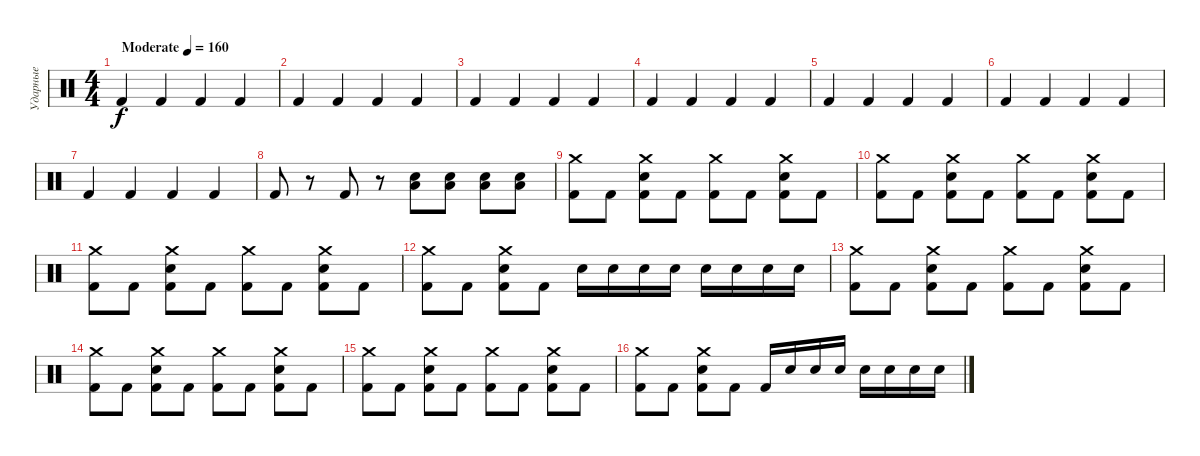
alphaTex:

\track ("Ударные" "Ударные") {instrument percussion}
\staff {score}
\articulation defaults
\ts (4 4)
\tempo (160 "Moderate")
\clef neutral
\ks c "Kick (hit) 2".4{dy f} "Kick (hit) 2".4 "Kick (hit) 2".4 "Kick (hit) 2".4
|
"Kick (hit) 2".4 "Kick (hit) 2".4 "Kick (hit) 2".4 "Kick (hit) 2".4 |
"Kick (hit) 2".4 "Kick (hit) 2".4 "Kick (hit) 2".4 "Kick (hit) 2".4 |
"Kick (hit) 2".4 "Kick (hit) 2".4 "Kick (hit) 2".4 "Kick (hit) 2".4 |
"Kick (hit) 2".4 "Kick (hit) 2".4 "Kick (hit) 2".4 "Kick (hit) 2".4 |
"Kick (hit) 2".4 "Kick (hit) 2".4 "Kick (hit) 2".4 "Kick (hit) 2".4 |
"Kick (hit) 2".4 "Kick (hit) 2".4 "Kick (hit) 2".4 "Kick (hit) 2".4 |
"Kick (hit) 2".8 r.8 "Kick (hit) 2".8 r.8 ("Electric Snare (hit)" "Low Floor Tom (hit)").8 ("Electric Snare (hit)" "Low Floor Tom (hit)").8 ("Electric Snare (hit)" "Low Floor Tom (hit)").8 ("Electric Snare (hit)" "Low Floor Tom (hit)").8 |
("Crash medium (hit)" "Kick (hit) 2").8 "Kick (hit) 2".8 ("Crash medium (hit)" "Electric Snare (hit)" "Kick (hit) 2").8 "Kick (hit) 2".8 ("Crash medium (hit)" "Kick (hit) 2").8 "Kick (hit) 2".8 ("Crash medium (hit)" "Electric Snare (hit)" "Kick (hit) 2").8 "Kick (hit) 2".8 |
("Crash medium (hit)" "Kick (hit) 2").8 "Kick (hit) 2".8 ("Crash medium (hit)" "Electric Snare (hit)" "Kick (hit) 2").8 "Kick (hit) 2".8 ("Crash medium (hit)" "Kick (hit) 2").8 "Kick (hit) 2".8 ("Crash medium (hit)" "Electric Snare (hit)" "Kick (hit) 2").8 "Kick (hit) 2".8 |
("Crash medium (hit)" "Kick (hit) 2").8 "Kick (hit) 2".8 ("Crash medium (hit)" "Electric Snare (hit)" "Kick (hit) 2").8 "Kick (hit) 2".8 ("Crash medium (hit)" "Kick (hit) 2").8 "Kick (hit) 2".8 ("Crash medium (hit)" "Electric Snare (hit)" "Kick (hit) 2").8 "Kick (hit) 2".8 |
("Crash medium (hit)" "Kick (hit) 2").8 "Kick (hit) 2".8 ("Crash medium (hit)" "Electric Snare (hit)" "Kick (hit) 2").8 "Kick (hit) 2".8 "Electric Snare (hit)".16 "Electric Snare (hit)".16 "Electric Snare (hit)".16 "Electric Snare (hit)".16 "Electric Snare (hit)".16 "Electric Snare (hit)".16 "Electric Snare (hit)".16 "Electric Snare (hit)".16 |
("Crash medium (hit)" "Kick (hit) 2").8 "Kick (hit) 2".8 ("Crash medium (hit)" "Electric Snare (hit)" "Kick (hit) 2").8 "Kick (hit) 2".8 ("Crash medium (hit)" "Kick (hit) 2").8 "Kick (hit) 2".8 ("Crash medium (hit)" "Electric Snare (hit)" "Kick (hit) 2").8 "Kick (hit) 2".8 |
("Crash medium (hit)" "Kick (hit) 2").8 "Kick (hit) 2".8 ("Crash medium (hit)" "Electric Snare (hit)" "Kick (hit) 2").8 "Kick (hit) 2".8 ("Crash medium (hit)" "Kick (hit) 2").8 "Kick (hit) 2".8 ("Crash medium (hit)" "Electric Snare (hit)" "Kick (hit) 2").8 "Kick (hit) 2".8 |
("Crash medium (hit)" "Kick (hit) 2").8 "Kick (hit) 2".8 ("Crash medium (hit)" "Electric Snare (hit)" "Kick (hit) 2").8 "Kick (hit) 2".8 ("Crash medium (hit)" "Kick (hit) 2").8 "Kick (hit) 2".8 ("Crash medium (hit)" "Electric Snare (hit)" "Kick (hit) 2").8 "Kick (hit) 2".8 |
("Crash medium (hit)" "Kick (hit) 2").8 "Kick (hit) 2".8 ("Crash medium (hit)" "Electric Snare (hit)" "Kick (hit) 2").8 "Kick (hit) 2".8 "Kick (hit) 2".16 "Electric Snare (hit)".16 "Electric Snare (hit)".16 "Electric Snare (hit)".16 "Electric Snare (hit)".16 "Electric Snare (hit)".16 "Electric Snare (hit)".16 "Electric Snare (hit)".16
